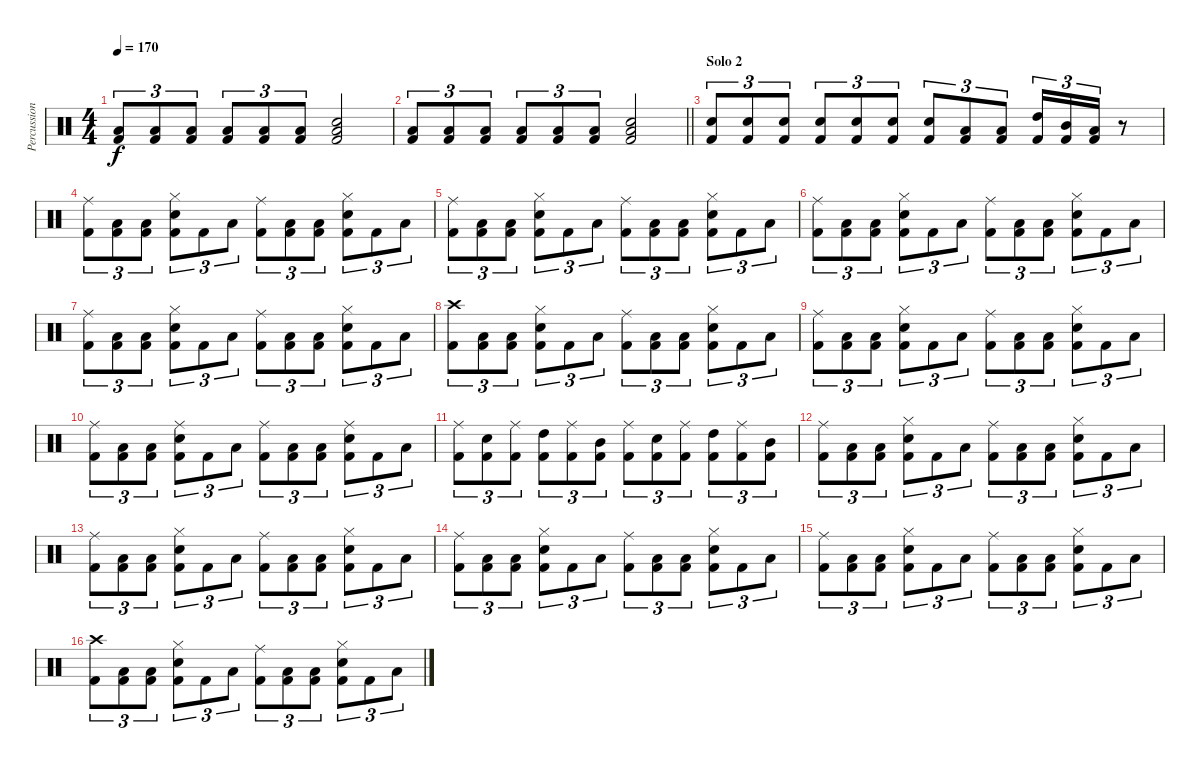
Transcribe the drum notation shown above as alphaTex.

\track ("Percussions" "Percussion") {instrument percussion}
\staff {score}
\articulation defaults
\ts (4 4)
\tempo 170
\clef neutral
\ks c
("Low Floor Tom (hit)" "Kick (hit) 2").8{tu (3 2) dy f} ("Low Floor Tom (hit)" "Kick (hit) 2").8{tu (3 2)} ("Low Floor Tom (hit)" "Kick (hit) 2").8{tu (3 2)} ("Low Floor Tom (hit)" "Kick (hit) 2").8{tu (3 2)} ("Low Floor Tom (hit)" "Kick (hit) 2").8{tu (3 2)} ("Low Floor Tom (hit)" "Kick (hit) 2").8{tu (3 2)} ("Snare (hit) 2" "Low Tom (hit)" "Kick (hit) 2").2 |
\barLineRight lightlight
("Low Floor Tom (hit)" "Kick (hit) 2").8{tu (3 2)} ("Low Floor Tom (hit)" "Kick (hit) 2").8{tu (3 2)} ("Low Floor Tom (hit)" "Kick (hit) 2").8{tu (3 2)} ("Low Floor Tom (hit)" "Kick (hit) 2").8{tu (3 2)} ("Low Floor Tom (hit)" "Kick (hit) 2").8{tu (3 2)} ("Low Floor Tom (hit)" "Kick (hit) 2").8{tu (3 2)} ("Snare (hit) 2" "Low Tom (hit)" "Kick (hit) 2").2 |
\section ("" "Solo 2")
("Snare (hit) 2" "Kick (hit) 2").8{tu (3 2)} ("Snare (hit) 2" "Kick (hit) 2").8{tu (3 2)} ("Snare (hit) 2" "Kick (hit) 2").8{tu (3 2)} ("Snare (hit) 2" "Kick (hit) 2").8{tu (3 2)} ("Snare (hit) 2" "Kick (hit) 2").8{tu (3 2)} ("Snare (hit) 2" "Kick (hit) 2").8{tu (3 2)} ("Snare (hit) 2" "Kick (hit) 2").8{tu (3 2)} ("Low Tom (hit)" "Kick (hit) 2").8{tu (3 2)} ("Low Tom (hit)" "Kick (hit) 2").8{tu (3 2)} ("High Tom (hit)" "Kick (hit) 2").16{tu (3 2)} ("Mid Tom (hit)" "Kick (hit) 2").16{tu (3 2)} ("Low Tom (hit)" "Kick (hit) 2").16{tu (3 2)} r.8 |
("Ride (middle)" "Kick (hit) 2").8{tu (3 2)} ("Low Floor Tom (hit)" "Kick (hit) 2").8{tu (3 2)} ("Low Floor Tom (hit)" "Kick (hit) 2").8{tu (3 2)} ("Hi-Hat (closed)" "Snare (hit) 2" "Kick (hit) 2").8{tu (3 2)} "Kick (hit) 2".8{tu (3 2)} "Low Floor Tom (hit)".8{tu (3 2)} ("Ride (middle)" "Kick (hit) 2").8{tu (3 2)} ("Low Floor Tom (hit)" "Kick (hit) 2").8{tu (3 2)} ("Low Floor Tom (hit)" "Kick (hit) 2").8{tu (3 2)} ("Hi-Hat (closed)" "Snare (hit) 2" "Kick (hit) 2").8{tu (3 2)} "Kick (hit) 2".8{tu (3 2)} "Low Floor Tom (hit)".8{tu (3 2)} |
("Ride (middle)" "Kick (hit) 2").8{tu (3 2)} ("Low Floor Tom (hit)" "Kick (hit) 2").8{tu (3 2)} ("Low Floor Tom (hit)" "Kick (hit) 2").8{tu (3 2)} ("Hi-Hat (closed)" "Snare (hit) 2" "Kick (hit) 2").8{tu (3 2)} "Kick (hit) 2".8{tu (3 2)} "Low Floor Tom (hit)".8{tu (3 2)} ("Ride (middle)" "Kick (hit) 2").8{tu (3 2)} ("Low Floor Tom (hit)" "Kick (hit) 2").8{tu (3 2)} ("Low Floor Tom (hit)" "Kick (hit) 2").8{tu (3 2)} ("Hi-Hat (closed)" "Snare (hit) 2" "Kick (hit) 2").8{tu (3 2)} "Kick (hit) 2".8{tu (3 2)} "Low Floor Tom (hit)".8{tu (3 2)} |
("Ride (middle)" "Kick (hit) 2").8{tu (3 2)} ("Low Floor Tom (hit)" "Kick (hit) 2").8{tu (3 2)} ("Low Floor Tom (hit)" "Kick (hit) 2").8{tu (3 2)} ("Hi-Hat (closed)" "Snare (hit) 2" "Kick (hit) 2").8{tu (3 2)} "Kick (hit) 2".8{tu (3 2)} "Low Floor Tom (hit)".8{tu (3 2)} ("Ride (middle)" "Kick (hit) 2").8{tu (3 2)} ("Low Floor Tom (hit)" "Kick (hit) 2").8{tu (3 2)} ("Low Floor Tom (hit)" "Kick (hit) 2").8{tu (3 2)} ("Hi-Hat (closed)" "Snare (hit) 2" "Kick (hit) 2").8{tu (3 2)} "Kick (hit) 2".8{tu (3 2)} "Low Floor Tom (hit)".8{tu (3 2)} |
("Ride (middle)" "Kick (hit) 2").8{tu (3 2)} ("Low Floor Tom (hit)" "Kick (hit) 2").8{tu (3 2)} ("Low Floor Tom (hit)" "Kick (hit) 2").8{tu (3 2)} ("Hi-Hat (closed)" "Snare (hit) 2" "Kick (hit) 2").8{tu (3 2)} "Kick (hit) 2".8{tu (3 2)} "Low Floor Tom (hit)".8{tu (3 2)} ("Ride (middle)" "Kick (hit) 2").8{tu (3 2)} ("Low Floor Tom (hit)" "Kick (hit) 2").8{tu (3 2)} ("Low Floor Tom (hit)" "Kick (hit) 2").8{tu (3 2)} ("Hi-Hat (closed)" "Snare (hit) 2" "Kick (hit) 2").8{tu (3 2)} "Kick (hit) 2".8{tu (3 2)} "Low Floor Tom (hit)".8{tu (3 2)} |
("Crash high (hit)" "Kick (hit) 2").8{tu (3 2)} ("Low Floor Tom (hit)" "Kick (hit) 2").8{tu (3 2)} ("Low Floor Tom (hit)" "Kick (hit) 2").8{tu (3 2)} ("Hi-Hat (closed)" "Snare (hit) 2" "Kick (hit) 2").8{tu (3 2)} "Kick (hit) 2".8{tu (3 2)} "Low Floor Tom (hit)".8{tu (3 2)} ("Ride (middle)" "Kick (hit) 2").8{tu (3 2)} ("Low Floor Tom (hit)" "Kick (hit) 2").8{tu (3 2)} ("Low Floor Tom (hit)" "Kick (hit) 2").8{tu (3 2)} ("Hi-Hat (closed)" "Snare (hit) 2" "Kick (hit) 2").8{tu (3 2)} "Kick (hit) 2".8{tu (3 2)} "Low Floor Tom (hit)".8{tu (3 2)} |
("Ride (middle)" "Kick (hit) 2").8{tu (3 2)} ("Low Floor Tom (hit)" "Kick (hit) 2").8{tu (3 2)} ("Low Floor Tom (hit)" "Kick (hit) 2").8{tu (3 2)} ("Hi-Hat (closed)" "Snare (hit) 2" "Kick (hit) 2").8{tu (3 2)} "Kick (hit) 2".8{tu (3 2)} "Low Floor Tom (hit)".8{tu (3 2)} ("Ride (middle)" "Kick (hit) 2").8{tu (3 2)} ("Low Floor Tom (hit)" "Kick (hit) 2").8{tu (3 2)} ("Low Floor Tom (hit)" "Kick (hit) 2").8{tu (3 2)} ("Hi-Hat (closed)" "Snare (hit) 2" "Kick (hit) 2").8{tu (3 2)} "Kick (hit) 2".8{tu (3 2)} "Low Floor Tom (hit)".8{tu (3 2)} |
("Ride (middle)" "Kick (hit) 2").8{tu (3 2)} ("Low Floor Tom (hit)" "Kick (hit) 2").8{tu (3 2)} ("Low Floor Tom (hit)" "Kick (hit) 2").8{tu (3 2)} ("Ride (middle)" "Snare (hit) 2" "Kick (hit) 2").8{tu (3 2)} "Kick (hit) 2".8{tu (3 2)} "Low Floor Tom (hit)".8{tu (3 2)} ("Ride (middle)" "Kick (hit) 2").8{tu (3 2)} ("Low Floor Tom (hit)" "Kick (hit) 2").8{tu (3 2)} ("Low Floor Tom (hit)" "Kick (hit) 2").8{tu (3 2)} ("Ride (middle)" "Snare (hit) 2" "Kick (hit) 2").8{tu (3 2)} "Kick (hit) 2".8{tu (3 2)} "Low Floor Tom (hit)".8{tu (3 2)} |
("Ride (middle)" "Kick (hit) 2").8{tu (3 2)} ("Snare (hit) 2" "Kick (hit) 2").8{tu (3 2)} ("Ride (middle)" "Kick (hit) 2").8{tu (3 2)} ("High Tom (hit)" "Kick (hit) 2").8{tu (3 2)} ("Ride (middle)" "Kick (hit) 2").8{tu (3 2)} ("Mid Tom (hit)" "Kick (hit) 2").8{tu (3 2)} ("Ride (middle)" "Kick (hit) 2").8{tu (3 2)} ("Snare (hit) 2" "Kick (hit) 2").8{tu (3 2)} ("Ride (middle)" "Kick (hit) 2").8{tu (3 2)} ("High Tom (hit)" "Kick (hit) 2").8{tu (3 2)} ("Ride (middle)" "Kick (hit) 2").8{tu (3 2)} ("Mid Tom (hit)" "Kick (hit) 2").8{tu (3 2)} |
("Ride (middle)" "Kick (hit) 2").8{tu (3 2)} ("Low Floor Tom (hit)" "Kick (hit) 2").8{tu (3 2)} ("Low Floor Tom (hit)" "Kick (hit) 2").8{tu (3 2)} ("Hi-Hat (closed)" "Snare (hit) 2" "Kick (hit) 2").8{tu (3 2)} "Kick (hit) 2".8{tu (3 2)} "Low Floor Tom (hit)".8{tu (3 2)} ("Ride (middle)" "Kick (hit) 2").8{tu (3 2)} ("Low Floor Tom (hit)" "Kick (hit) 2").8{tu (3 2)} ("Low Floor Tom (hit)" "Kick (hit) 2").8{tu (3 2)} ("Hi-Hat (closed)" "Snare (hit) 2" "Kick (hit) 2").8{tu (3 2)} "Kick (hit) 2".8{tu (3 2)} "Low Floor Tom (hit)".8{tu (3 2)} |
("Ride (middle)" "Kick (hit) 2").8{tu (3 2)} ("Low Floor Tom (hit)" "Kick (hit) 2").8{tu (3 2)} ("Low Floor Tom (hit)" "Kick (hit) 2").8{tu (3 2)} ("Hi-Hat (closed)" "Snare (hit) 2" "Kick (hit) 2").8{tu (3 2)} "Kick (hit) 2".8{tu (3 2)} "Low Floor Tom (hit)".8{tu (3 2)} ("Ride (middle)" "Kick (hit) 2").8{tu (3 2)} ("Low Floor Tom (hit)" "Kick (hit) 2").8{tu (3 2)} ("Low Floor Tom (hit)" "Kick (hit) 2").8{tu (3 2)} ("Hi-Hat (closed)" "Snare (hit) 2" "Kick (hit) 2").8{tu (3 2)} "Kick (hit) 2".8{tu (3 2)} "Low Floor Tom (hit)".8{tu (3 2)} |
("Ride (middle)" "Kick (hit) 2").8{tu (3 2)} ("Low Floor Tom (hit)" "Kick (hit) 2").8{tu (3 2)} ("Low Floor Tom (hit)" "Kick (hit) 2").8{tu (3 2)} ("Hi-Hat (closed)" "Snare (hit) 2" "Kick (hit) 2").8{tu (3 2)} "Kick (hit) 2".8{tu (3 2)} "Low Floor Tom (hit)".8{tu (3 2)} ("Ride (middle)" "Kick (hit) 2").8{tu (3 2)} ("Low Floor Tom (hit)" "Kick (hit) 2").8{tu (3 2)} ("Low Floor Tom (hit)" "Kick (hit) 2").8{tu (3 2)} ("Hi-Hat (closed)" "Snare (hit) 2" "Kick (hit) 2").8{tu (3 2)} "Kick (hit) 2".8{tu (3 2)} "Low Floor Tom (hit)".8{tu (3 2)} |
("Ride (middle)" "Kick (hit) 2").8{tu (3 2)} ("Low Floor Tom (hit)" "Kick (hit) 2").8{tu (3 2)} ("Low Floor Tom (hit)" "Kick (hit) 2").8{tu (3 2)} ("Hi-Hat (closed)" "Snare (hit) 2" "Kick (hit) 2").8{tu (3 2)} "Kick (hit) 2".8{tu (3 2)} "Low Floor Tom (hit)".8{tu (3 2)} ("Ride (middle)" "Kick (hit) 2").8{tu (3 2)} ("Low Floor Tom (hit)" "Kick (hit) 2").8{tu (3 2)} ("Low Floor Tom (hit)" "Kick (hit) 2").8{tu (3 2)} ("Hi-Hat (closed)" "Snare (hit) 2" "Kick (hit) 2").8{tu (3 2)} "Kick (hit) 2".8{tu (3 2)} "Low Floor Tom (hit)".8{tu (3 2)} |
("Crash high (hit)" "Kick (hit) 2").8{tu (3 2)} ("Low Floor Tom (hit)" "Kick (hit) 2").8{tu (3 2)} ("Low Floor Tom (hit)" "Kick (hit) 2").8{tu (3 2)} ("Hi-Hat (closed)" "Snare (hit) 2" "Kick (hit) 2").8{tu (3 2)} "Kick (hit) 2".8{tu (3 2)} "Low Floor Tom (hit)".8{tu (3 2)} ("Ride (middle)" "Kick (hit) 2").8{tu (3 2)} ("Low Floor Tom (hit)" "Kick (hit) 2").8{tu (3 2)} ("Low Floor Tom (hit)" "Kick (hit) 2").8{tu (3 2)} ("Hi-Hat (closed)" "Snare (hit) 2" "Kick (hit) 2").8{tu (3 2)} "Kick (hit) 2".8{tu (3 2)} "Low Floor Tom (hit)".8{tu (3 2)}
